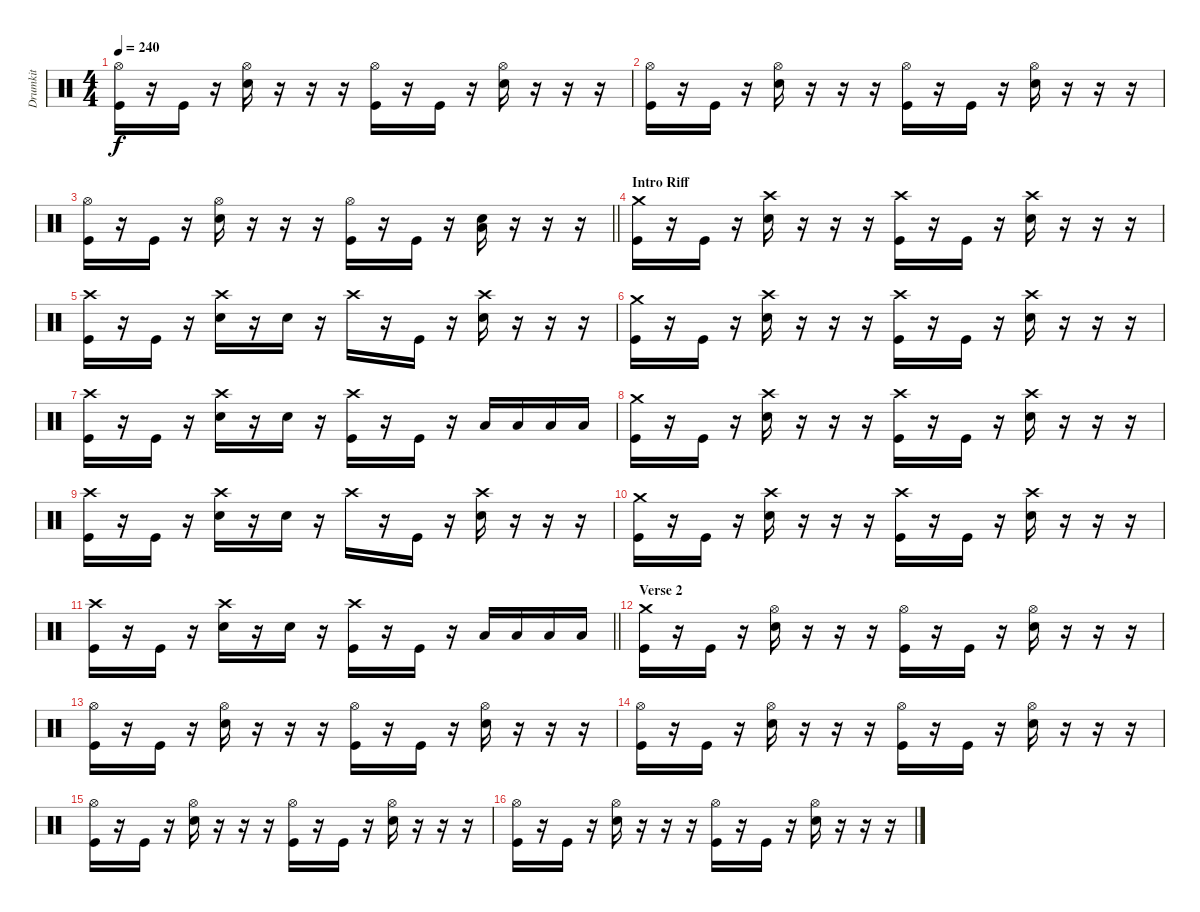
\track ("Drumkit" "Drumkit") {instrument percussion}
\staff {score}
\articulation defaults
\ts (4 4)
\tempo 240
\clef neutral
\ks c
("Hi-Hat (open)" "Kick (hit)").16{dy f} r.16 "Kick (hit)".16 r.16 ("Hi-Hat (open)" "Snare (hit) 2").16 r.16 r.16 r.16 ("Hi-Hat (open)" "Kick (hit)").16 r.16 "Kick (hit)".16 r.16 ("Hi-Hat (open)" "Snare (hit) 2").16 r.16 r.16 r.16 |
("Hi-Hat (open)" "Kick (hit)").16 r.16 "Kick (hit)".16 r.16 ("Hi-Hat (open)" "Snare (hit) 2").16 r.16 r.16 r.16 ("Hi-Hat (open)" "Kick (hit)").16 r.16 "Kick (hit)".16 r.16 ("Hi-Hat (open)" "Snare (hit) 2").16 r.16 r.16 r.16 |
\barLineRight lightlight
("Hi-Hat (open)" "Kick (hit)").16 r.16 "Kick (hit)".16 r.16 ("Hi-Hat (open)" "Snare (hit) 2").16 r.16 r.16 r.16 ("Hi-Hat (open)" "Kick (hit)").16 r.16 "Kick (hit)".16 r.16 ("Low Floor Tom (hit)" "Snare (hit) 2").16 r.16 r.16 r.16 |
\section ("" "Intro Riff")
("Crash medium (hit)" "Kick (hit)").16 r.16 "Kick (hit)".16 r.16 ("Crash high (hit)" "Snare (hit) 2").16 r.16 r.16 r.16 ("Crash high (hit)" "Kick (hit)").16 r.16 "Kick (hit)".16 r.16 ("Crash high (hit)" "Snare (hit) 2").16 r.16 r.16 r.16 |
("Crash high (hit)" "Kick (hit)").16 r.16 "Kick (hit)".16 r.16 ("Crash high (hit)" "Snare (hit) 2").16 r.16 "Snare (hit) 2".16 r.16 "Crash high (hit)".16 r.16 "Kick (hit)".16 r.16 ("Crash high (hit)" "Snare (hit) 2").16 r.16 r.16 r.16 |
("Crash medium (hit)" "Kick (hit)").16 r.16 "Kick (hit)".16 r.16 ("Crash high (hit)" "Snare (hit) 2").16 r.16 r.16 r.16 ("Crash high (hit)" "Kick (hit)").16 r.16 "Kick (hit)".16 r.16 ("Crash high (hit)" "Snare (hit) 2").16 r.16 r.16 r.16 |
("Crash high (hit)" "Kick (hit)").16 r.16 "Kick (hit)".16 r.16 ("Crash high (hit)" "Snare (hit) 2").16 r.16 "Snare (hit) 2".16 r.16 ("Crash high (hit)" "Kick (hit)").16 r.16 "Kick (hit)".16 r.16 "Low Floor Tom (hit)".16 "Low Floor Tom (hit)".16 "Low Floor Tom (hit)".16 "Low Floor Tom (hit)".16 |
("Crash medium (hit)" "Kick (hit)").16 r.16 "Kick (hit)".16 r.16 ("Crash high (hit)" "Snare (hit) 2").16 r.16 r.16 r.16 ("Crash high (hit)" "Kick (hit)").16 r.16 "Kick (hit)".16 r.16 ("Crash high (hit)" "Snare (hit) 2").16 r.16 r.16 r.16 |
("Crash high (hit)" "Kick (hit)").16 r.16 "Kick (hit)".16 r.16 ("Crash high (hit)" "Snare (hit) 2").16 r.16 "Snare (hit) 2".16 r.16 "Crash high (hit)".16 r.16 "Kick (hit)".16 r.16 ("Crash high (hit)" "Snare (hit) 2").16 r.16 r.16 r.16 |
("Crash medium (hit)" "Kick (hit)").16 r.16 "Kick (hit)".16 r.16 ("Crash high (hit)" "Snare (hit) 2").16 r.16 r.16 r.16 ("Crash high (hit)" "Kick (hit)").16 r.16 "Kick (hit)".16 r.16 ("Crash high (hit)" "Snare (hit) 2").16 r.16 r.16 r.16 |
\barLineRight lightlight
("Crash high (hit)" "Kick (hit)").16 r.16 "Kick (hit)".16 r.16 ("Crash high (hit)" "Snare (hit) 2").16 r.16 "Snare (hit) 2".16 r.16 ("Crash high (hit)" "Kick (hit)").16 r.16 "Kick (hit)".16 r.16 "Low Floor Tom (hit)".16 "Low Floor Tom (hit)".16 "Low Floor Tom (hit)".16 "Low Floor Tom (hit)".16 |
\section ("" "Verse 2")
("Crash medium (hit)" "Kick (hit)").16 r.16 "Kick (hit)".16 r.16 ("Hi-Hat (open)" "Snare (hit) 2").16 r.16 r.16 r.16 ("Hi-Hat (open)" "Kick (hit)").16 r.16 "Kick (hit)".16 r.16 ("Hi-Hat (open)" "Snare (hit) 2").16 r.16 r.16 r.16 |
("Hi-Hat (open)" "Kick (hit)").16 r.16 "Kick (hit)".16 r.16 ("Hi-Hat (open)" "Snare (hit) 2").16 r.16 r.16 r.16 ("Hi-Hat (open)" "Kick (hit)").16 r.16 "Kick (hit)".16 r.16 ("Hi-Hat (open)" "Snare (hit) 2").16 r.16 r.16 r.16 |
("Hi-Hat (open)" "Kick (hit)").16 r.16 "Kick (hit)".16 r.16 ("Hi-Hat (open)" "Snare (hit) 2").16 r.16 r.16 r.16 ("Hi-Hat (open)" "Kick (hit)").16 r.16 "Kick (hit)".16 r.16 ("Hi-Hat (open)" "Snare (hit) 2").16 r.16 r.16 r.16 |
("Hi-Hat (open)" "Kick (hit)").16 r.16 "Kick (hit)".16 r.16 ("Hi-Hat (open)" "Snare (hit) 2").16 r.16 r.16 r.16 ("Hi-Hat (open)" "Kick (hit)").16 r.16 "Kick (hit)".16 r.16 ("Hi-Hat (open)" "Snare (hit) 2").16 r.16 r.16 r.16 |
("Hi-Hat (open)" "Kick (hit)").16 r.16 "Kick (hit)".16 r.16 ("Hi-Hat (open)" "Snare (hit) 2").16 r.16 r.16 r.16 ("Hi-Hat (open)" "Kick (hit)").16 r.16 "Kick (hit)".16 r.16 ("Hi-Hat (open)" "Snare (hit) 2").16 r.16 r.16 r.16
